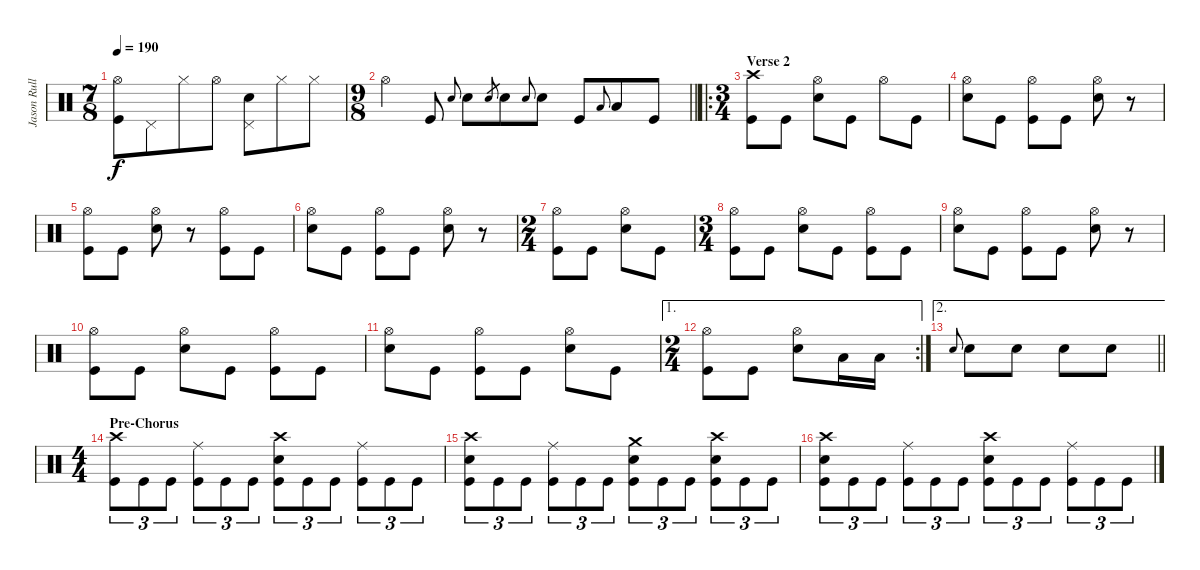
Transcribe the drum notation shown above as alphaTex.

\track ("Jason Rullo - Drums and Percussion" "Jason Rull") {instrument percussion}
\staff {score}
\articulation defaults
\ts (7 8)
\tempo 190
\clef neutral
\ks c
("Hi-Hat (open)" "Kick (hit)").8{dy f} "Pedal Hi-Hat (hit)".8 "Hi-Hat (closed)".8 "Hi-Hat (open)".8 ("Pedal Hi-Hat (hit)" "Snare (hit) 2").8 "Hi-Hat (closed)".8 "Hi-Hat (closed)".8 |
\ts (9 8)
\barLineRight lightlight "Hi-Hat (open)".4 "Kick (hit)".8 "Snare (hit) 2".8{gr onbeat} "Snare (hit) 2".8 "Snare (hit) 2".8{gr} "Snare (hit) 2".8 "Snare (hit) 2".8{gr onbeat} "Snare (hit) 2".8 "Kick (hit)".8 "Low Floor Tom (hit)".8{gr onbeat} "Low Floor Tom (hit)".8 "Kick (hit)".8
|
\ro
\ts (3 4)
\section ("" "Verse 2")
("Kick (hit)" "Crash high (hit)").8 "Kick (hit)".8 ("Snare (hit) 2" "Hi-Hat (open)").8 "Kick (hit)".8 "Hi-Hat (open)".8 "Kick (hit)".8 |
("Snare (hit) 2" "Hi-Hat (open)").8 "Kick (hit)".8 ("Kick (hit)" "Hi-Hat (open)").8 "Kick (hit)".8 ("Snare (hit) 2" "Hi-Hat (open)").8 r.8 |
("Kick (hit)" "Hi-Hat (open)").8 "Kick (hit)".8 ("Snare (hit) 2" "Hi-Hat (open)").8 r.8 ("Kick (hit)" "Hi-Hat (open)").8 "Kick (hit)".8 |
("Snare (hit) 2" "Hi-Hat (open)").8 "Kick (hit)".8 ("Kick (hit)" "Hi-Hat (open)").8 "Kick (hit)".8 ("Snare (hit) 2" "Hi-Hat (open)").8 r.8 |
\ts (2 4)
("Kick (hit)" "Hi-Hat (open)").8 "Kick (hit)".8 ("Snare (hit) 2" "Hi-Hat (open)").8 "Kick (hit)".8 |
\ts (3 4)
("Kick (hit)" "Hi-Hat (open)").8 "Kick (hit)".8 ("Snare (hit) 2" "Hi-Hat (open)").8 "Kick (hit)".8 ("Kick (hit)" "Hi-Hat (open)").8 "Kick (hit)".8 |
("Snare (hit) 2" "Hi-Hat (open)").8 "Kick (hit)".8 ("Kick (hit)" "Hi-Hat (open)").8 "Kick (hit)".8 ("Snare (hit) 2" "Hi-Hat (open)").8 r.8 |
("Kick (hit)" "Hi-Hat (open)").8 "Kick (hit)".8 ("Hi-Hat (open)" "Snare (hit) 2").8 "Kick (hit)".8 ("Kick (hit)" "Hi-Hat (open)").8 "Kick (hit)".8 |
("Snare (hit) 2" "Hi-Hat (open)").8 "Kick (hit)".8 ("Kick (hit)" "Hi-Hat (open)").8 "Kick (hit)".8 ("Snare (hit) 2" "Hi-Hat (open)").8 "Kick (hit)".8 |
\ae 1
\rc 2
\ts (2 4)
("Hi-Hat (open)" "Kick (hit)").8 "Kick (hit)".8 ("Hi-Hat (open)" "Snare (hit) 2").8 "Low Tom (hit)".16 "Low Tom (hit)".16 |
\ae 2
\barLineRight lightlight "Snare (hit) 2".8{gr onbeat} "Snare (hit) 2".8 "Snare (hit) 2".8 "Snare (hit) 2".8 "Snare (hit) 2".8
|
\ts (4 4)
\section ("" "Pre-Chorus")
("Kick (hit)" "Crash high (hit)").8{tu (3 2)} "Kick (hit)".8{tu (3 2)} "Kick (hit)".8{tu (3 2)} ("Kick (hit)" "Ride (middle)").8{tu (3 2)} "Kick (hit)".8{tu (3 2)} "Kick (hit)".8{tu (3 2)} ("Snare (hit) 2" "Kick (hit)" "Crash high (hit)").8{tu (3 2)} "Kick (hit)".8{tu (3 2)} "Kick (hit)".8{tu (3 2)} ("Kick (hit)" "Ride (middle)").8{tu (3 2)} "Kick (hit)".8{tu (3 2)} "Kick (hit)".8{tu (3 2)} |
("Snare (hit) 2" "Kick (hit)" "Crash high (hit)").8{tu (3 2)} "Kick (hit)".8{tu (3 2)} "Kick (hit)".8{tu (3 2)} ("Kick (hit)" "Ride (middle)").8{tu (3 2)} "Kick (hit)".8{tu (3 2)} "Kick (hit)".8{tu (3 2)} ("Kick (hit)" "Snare (hit) 2" "Crash medium (hit)").8{tu (3 2)} "Kick (hit)".8{tu (3 2)} "Kick (hit)".8{tu (3 2)} ("Kick (hit)" "Snare (hit) 2" "Crash high (hit)").8{tu (3 2)} "Kick (hit)".8{tu (3 2)} "Kick (hit)".8{tu (3 2)} |
("Kick (hit)" "Crash high (hit)" "Snare (hit) 2").8{tu (3 2)} "Kick (hit)".8{tu (3 2)} "Kick (hit)".8{tu (3 2)} ("Kick (hit)" "Ride (middle)").8{tu (3 2)} "Kick (hit)".8{tu (3 2)} "Kick (hit)".8{tu (3 2)} ("Snare (hit) 2" "Kick (hit)" "Crash high (hit)").8{tu (3 2)} "Kick (hit)".8{tu (3 2)} "Kick (hit)".8{tu (3 2)} ("Kick (hit)" "Ride (middle)").8{tu (3 2)} "Kick (hit)".8{tu (3 2)} "Kick (hit)".8{tu (3 2)}
